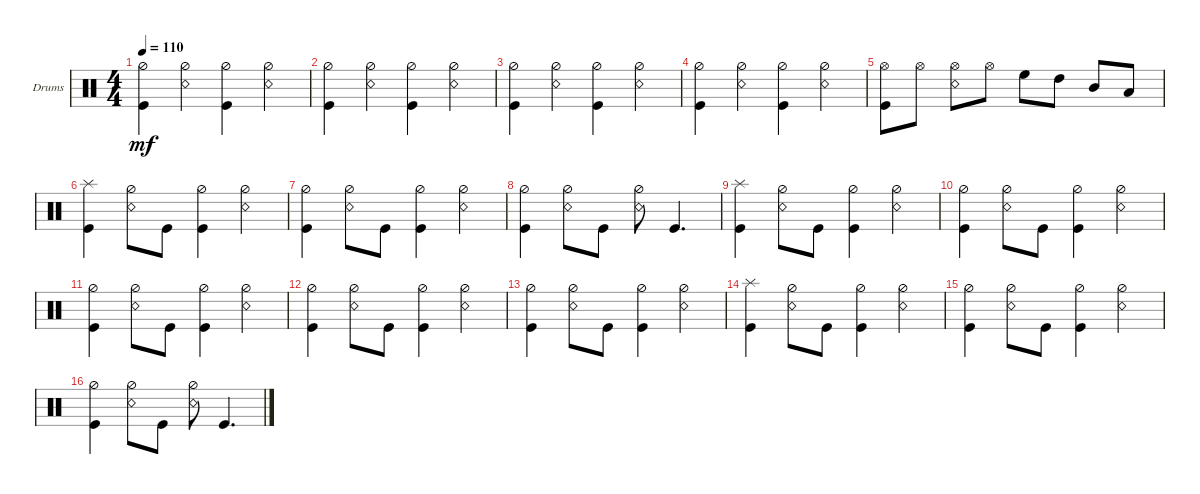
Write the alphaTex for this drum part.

\bracketExtendMode groupsimilarinstruments
\firstSystemTrackNameOrientation horizontal
\otherSystemsTrackNameOrientation horizontal
\track ("Drumkit" "Drums") {instrument percussion}
\staff {score}
\articulation defaults
\ts (4 4)
\tempo 110
\clef neutral
\ks c
("Kick (hit)" "Hi-Hat (half)").4{dy mf} ("Snare (rim shot)" "Hi-Hat (half)").4 ("Kick (hit)" "Hi-Hat (half)").4 ("Snare (rim shot)" "Hi-Hat (half)").4 |
("Kick (hit)" "Hi-Hat (half)").4 ("Snare (rim shot)" "Hi-Hat (half)").4 ("Kick (hit)" "Hi-Hat (half)").4 ("Snare (rim shot)" "Hi-Hat (half)").4 |
("Kick (hit)" "Hi-Hat (half)").4 ("Snare (rim shot)" "Hi-Hat (half)").4 ("Kick (hit)" "Hi-Hat (half)").4 ("Snare (rim shot)" "Hi-Hat (half)").4 |
("Kick (hit)" "Hi-Hat (half)").4 ("Snare (rim shot)" "Hi-Hat (half)").4 ("Kick (hit)" "Hi-Hat (half)").4 ("Snare (rim shot)" "Hi-Hat (half)").4 |
("Kick (hit)" "Hi-Hat (open)").8 "Hi-Hat (open)".8 ("Hi-Hat (open)" "Snare (rim shot)").8 "Hi-Hat (open)".8 "High Floor Tom (hit)".8 "High Tom (hit)".8 "Mid Tom (hit)".8 "Low Tom (hit)".8 |
("Kick (hit)" "Splash (hit)").4 ("Snare (rim shot)" "Hi-Hat (half)").8 "Kick (hit)".8 ("Kick (hit)" "Hi-Hat (half)").4 ("Snare (rim shot)" "Hi-Hat (half)").4 |
("Kick (hit)" "Hi-Hat (half)").4 ("Snare (rim shot)" "Hi-Hat (half)").8 "Kick (hit)".8 ("Kick (hit)" "Hi-Hat (half)").4 ("Snare (rim shot)" "Hi-Hat (half)").4 |
("Kick (hit)" "Hi-Hat (half)").4 ("Snare (rim shot)" "Hi-Hat (half)").8 "Kick (hit)".8 ("Snare (rim shot)" "Hi-Hat (half)").8 "Kick (hit)".4{d} |
("Kick (hit)" "Splash (hit)").4 ("Snare (rim shot)" "Hi-Hat (half)").8 "Kick (hit)".8 ("Kick (hit)" "Hi-Hat (half)").4 ("Snare (rim shot)" "Hi-Hat (half)").4 |
("Kick (hit)" "Hi-Hat (half)").4 ("Snare (rim shot)" "Hi-Hat (half)").8 "Kick (hit)".8 ("Kick (hit)" "Hi-Hat (half)").4 ("Snare (rim shot)" "Hi-Hat (half)").4 |
("Kick (hit)" "Hi-Hat (half)").4 ("Snare (rim shot)" "Hi-Hat (half)").8 "Kick (hit)".8 ("Kick (hit)" "Hi-Hat (half)").4 ("Snare (rim shot)" "Hi-Hat (half)").4 |
("Kick (hit)" "Hi-Hat (half)").4 ("Snare (rim shot)" "Hi-Hat (half)").8 "Kick (hit)".8 ("Kick (hit)" "Hi-Hat (half)").4 ("Snare (rim shot)" "Hi-Hat (half)").4 |
("Kick (hit)" "Hi-Hat (half)").4 ("Snare (rim shot)" "Hi-Hat (half)").8 "Kick (hit)".8 ("Kick (hit)" "Hi-Hat (half)").4 ("Snare (rim shot)" "Hi-Hat (half)").4 |
("Kick (hit)" "Splash (hit)").4 ("Snare (rim shot)" "Hi-Hat (half)").8 "Kick (hit)".8 ("Kick (hit)" "Hi-Hat (half)").4 ("Snare (rim shot)" "Hi-Hat (half)").4 |
("Kick (hit)" "Hi-Hat (half)").4 ("Snare (rim shot)" "Hi-Hat (half)").8 "Kick (hit)".8 ("Kick (hit)" "Hi-Hat (half)").4 ("Snare (rim shot)" "Hi-Hat (half)").4 |
("Kick (hit)" "Hi-Hat (half)").4 ("Snare (rim shot)" "Hi-Hat (half)").8 "Kick (hit)".8 ("Snare (rim shot)" "Hi-Hat (half)").8 "Kick (hit)".4{d}
